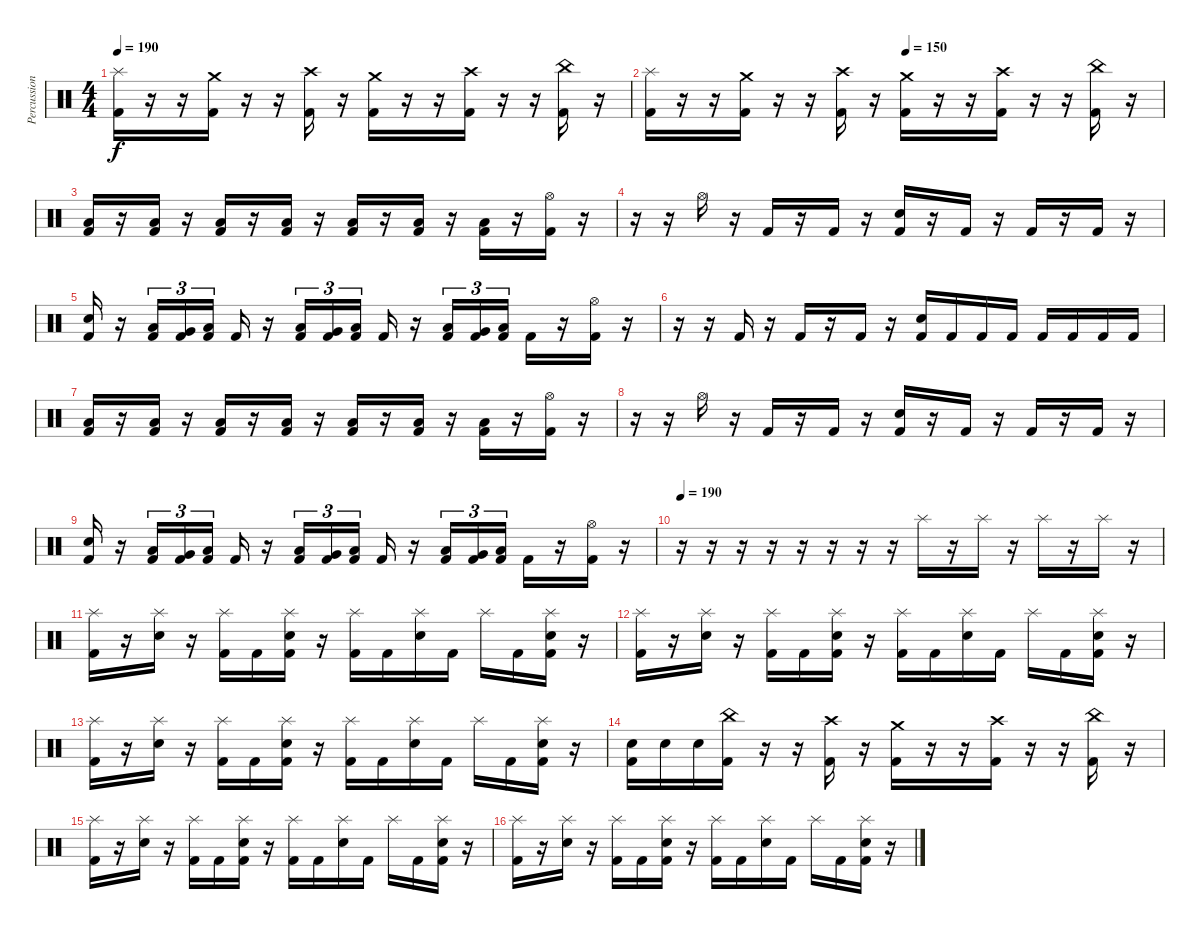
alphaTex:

\track ("Percussion" "Percussion") {instrument percussion}
\staff {score}
\articulation defaults
\ts (4 4)
\tempo 190
\clef neutral
\ks c
("Splash (hit)" "Kick (hit) 2").16{dy f} r.16 r.16 ("Crash medium (hit)" "Kick (hit) 2").16 r.16 r.16 ("Crash high (hit)" "Kick (hit) 2").16 r.16 ("Crash medium (hit)" "Kick (hit) 2").16 r.16 r.16 ("Crash high (hit)" "Kick (hit) 2").16 r.16 r.16 ("China (hit)" "Kick (hit) 2").16 r.16 |
\tempo (150 0.5)
("Splash (hit)" "Kick (hit) 2").16 r.16 r.16 ("Crash medium (hit)" "Kick (hit) 2").16 r.16 r.16 ("Crash high (hit)" "Kick (hit) 2").16 r.16 ("Crash medium (hit)" "Kick (hit) 2").16 r.16 r.16 ("Crash high (hit)" "Kick (hit) 2").16 r.16 r.16 ("China (hit)" "Kick (hit) 2").16 r.16 |
("Low Floor Tom (hit)" "Kick (hit) 2").16 r.16 ("Low Floor Tom (hit)" "Kick (hit) 2").16 r.16 ("Low Floor Tom (hit)" "Kick (hit) 2").16 r.16 ("Low Floor Tom (hit)" "Kick (hit) 2").16 r.16 ("Low Floor Tom (hit)" "Kick (hit) 2").16 r.16 ("Low Floor Tom (hit)" "Kick (hit) 2").16 r.16 ("Low Floor Tom (hit)" "Kick (hit) 2").16 r.16 ("Hi-Hat (open)" "Kick (hit) 2").16 r.16 |
r.16 r.16 "Hi-Hat (open)".16 r.16 "Kick (hit) 2".16 r.16 "Kick (hit) 2".16 r.16 ("Electric Snare (hit)" "Kick (hit) 2").16 r.16 "Kick (hit) 2".16 r.16 "Kick (hit) 2".16 r.16 "Kick (hit) 2".16 r.16 |
("Electric Snare (hit)" "Kick (hit) 2").16 r.16 ("Low Tom (hit)" "Kick (hit) 2").16{tu (3 2)} ("Very Low Tom (hit)" "Kick (hit) 2").16{tu (3 2)} ("Low Floor Tom (hit)" "Kick (hit) 2").16{tu (3 2)} "Kick (hit) 2".16 r.16 ("Low Tom (hit)" "Kick (hit) 2").16{tu (3 2)} ("Very Low Tom (hit)" "Kick (hit) 2").16{tu (3 2)} ("Low Floor Tom (hit)" "Kick (hit) 2").16{tu (3 2)} "Kick (hit) 2".16 r.16 ("Low Tom (hit)" "Kick (hit) 2").16{tu (3 2)} ("Very Low Tom (hit)" "Kick (hit) 2").16{tu (3 2)} ("Low Floor Tom (hit)" "Kick (hit) 2").16{tu (3 2)} "Kick (hit) 2".16 r.16 ("Hi-Hat (open)" "Kick (hit) 2").16 r.16 |
r.16 r.16 "Kick (hit) 2".16 r.16 "Kick (hit) 2".16 r.16 "Kick (hit) 2".16 r.16 ("Electric Snare (hit)" "Kick (hit) 2").16 "Kick (hit) 2".16 "Kick (hit) 2".16 "Kick (hit) 2".16 "Kick (hit) 2".16 "Kick (hit) 2".16 "Kick (hit) 2".16 "Kick (hit) 2".16 |
("Low Floor Tom (hit)" "Kick (hit) 2").16 r.16 ("Low Floor Tom (hit)" "Kick (hit) 2").16 r.16 ("Low Floor Tom (hit)" "Kick (hit) 2").16 r.16 ("Low Floor Tom (hit)" "Kick (hit) 2").16 r.16 ("Low Floor Tom (hit)" "Kick (hit) 2").16 r.16 ("Low Floor Tom (hit)" "Kick (hit) 2").16 r.16 ("Low Floor Tom (hit)" "Kick (hit) 2").16 r.16 ("Hi-Hat (open)" "Kick (hit) 2").16 r.16 |
r.16 r.16 "Hi-Hat (open)".16 r.16 "Kick (hit) 2".16 r.16 "Kick (hit) 2".16 r.16 ("Electric Snare (hit)" "Kick (hit) 2").16 r.16 "Kick (hit) 2".16 r.16 "Kick (hit) 2".16 r.16 "Kick (hit) 2".16 r.16 |
("Electric Snare (hit)" "Kick (hit) 2").16 r.16 ("Low Tom (hit)" "Kick (hit) 2").16{tu (3 2)} ("Very Low Tom (hit)" "Kick (hit) 2").16{tu (3 2)} ("Low Floor Tom (hit)" "Kick (hit) 2").16{tu (3 2)} "Kick (hit) 2".16 r.16 ("Low Tom (hit)" "Kick (hit) 2").16{tu (3 2)} ("Very Low Tom (hit)" "Kick (hit) 2").16{tu (3 2)} ("Low Floor Tom (hit)" "Kick (hit) 2").16{tu (3 2)} "Kick (hit) 2".16 r.16 ("Low Tom (hit)" "Kick (hit) 2").16{tu (3 2)} ("Very Low Tom (hit)" "Kick (hit) 2").16{tu (3 2)} ("Low Floor Tom (hit)" "Kick (hit) 2").16{tu (3 2)} "Kick (hit) 2".16 r.16 ("Hi-Hat (open)" "Kick (hit) 2").16 r.16 |
\tempo 190
r.16 r.16 r.16 r.16 r.16 r.16 r.16 r.16 "Splash (hit)".16 r.16 "Splash (hit)".16 r.16 "Splash (hit)".16 r.16 "Splash (hit)".16 r.16 |
("Splash (hit)" "Kick (hit) 2").16 r.16 ("Splash (hit)" "Electric Snare (hit)").16 r.16 ("Splash (hit)" "Kick (hit) 2").16 "Kick (hit) 2".16 ("Splash (hit)" "Electric Snare (hit)" "Kick (hit) 2").16 r.16 ("Splash (hit)" "Kick (hit) 2").16 "Kick (hit) 2".16 ("Splash (hit)" "Electric Snare (hit)").16 "Kick (hit) 2".16 "Splash (hit)".16 "Kick (hit) 2".16 ("Splash (hit)" "Electric Snare (hit)" "Kick (hit) 2").16 r.16 |
("Splash (hit)" "Kick (hit) 2").16 r.16 ("Splash (hit)" "Electric Snare (hit)").16 r.16 ("Splash (hit)" "Kick (hit) 2").16 "Kick (hit) 2".16 ("Splash (hit)" "Electric Snare (hit)" "Kick (hit) 2").16 r.16 ("Splash (hit)" "Kick (hit) 2").16 "Kick (hit) 2".16 ("Splash (hit)" "Electric Snare (hit)").16 "Kick (hit) 2".16 "Splash (hit)".16 "Kick (hit) 2".16 ("Splash (hit)" "Electric Snare (hit)" "Kick (hit) 2").16 r.16 |
("Splash (hit)" "Kick (hit) 2").16 r.16 ("Splash (hit)" "Electric Snare (hit)").16 r.16 ("Splash (hit)" "Kick (hit) 2").16 "Kick (hit) 2".16 ("Splash (hit)" "Electric Snare (hit)" "Kick (hit) 2").16 r.16 ("Splash (hit)" "Kick (hit) 2").16 "Kick (hit) 2".16 ("Splash (hit)" "Electric Snare (hit)").16 "Kick (hit) 2".16 "Splash (hit)".16 "Kick (hit) 2".16 ("Splash (hit)" "Electric Snare (hit)" "Kick (hit) 2").16 r.16 |
("Electric Snare (hit)" "Kick (hit) 2").16 "Electric Snare (hit)".16 "Electric Snare (hit)".16 ("China (hit)" "Kick (hit) 2").16 r.16 r.16 ("Crash high (hit)" "Kick (hit) 2").16 r.16 ("Crash medium (hit)" "Kick (hit) 2").16 r.16 r.16 ("Crash high (hit)" "Kick (hit) 2").16 r.16 r.16 ("China (hit)" "Kick (hit) 2").16 r.16 |
("Splash (hit)" "Kick (hit) 2").16 r.16 ("Splash (hit)" "Electric Snare (hit)").16 r.16 ("Splash (hit)" "Kick (hit) 2").16 "Kick (hit) 2".16 ("Splash (hit)" "Electric Snare (hit)" "Kick (hit) 2").16 r.16 ("Splash (hit)" "Kick (hit) 2").16 "Kick (hit) 2".16 ("Splash (hit)" "Electric Snare (hit)").16 "Kick (hit) 2".16 "Splash (hit)".16 "Kick (hit) 2".16 ("Splash (hit)" "Electric Snare (hit)" "Kick (hit) 2").16 r.16 |
("Splash (hit)" "Kick (hit) 2").16 r.16 ("Splash (hit)" "Electric Snare (hit)").16 r.16 ("Splash (hit)" "Kick (hit) 2").16 "Kick (hit) 2".16 ("Splash (hit)" "Electric Snare (hit)" "Kick (hit) 2").16 r.16 ("Splash (hit)" "Kick (hit) 2").16 "Kick (hit) 2".16 ("Splash (hit)" "Electric Snare (hit)").16 "Kick (hit) 2".16 "Splash (hit)".16 "Kick (hit) 2".16 ("Splash (hit)" "Electric Snare (hit)" "Kick (hit) 2").16 r.16
